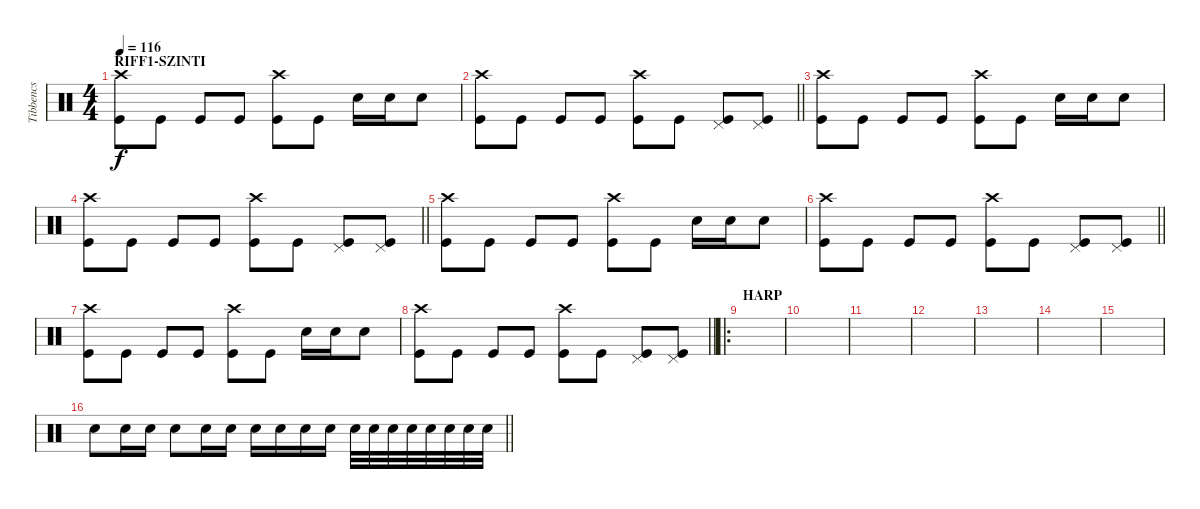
\track ("Tibbencs" "Tibbencs") {instrument percussion}
\staff {score}
\articulation defaults
\ts (4 4)
\section ("" "RIFF1-SZINTI")
\tempo 116
\clef neutral
\ks c
("Kick (hit)" "Crash high (hit)").8{dy f} "Kick (hit)".8 "Kick (hit)".8 "Kick (hit)".8 ("Kick (hit)" "Crash high (hit)").8 "Kick (hit)".8 "Electric Snare (hit)".16 "Electric Snare (hit)".16 "Snare (hit) 2".8 |
\barLineRight lightlight
("Kick (hit)" "Crash high (hit)").8 "Kick (hit)".8 "Kick (hit)".8 "Kick (hit)".8 ("Kick (hit)" "Crash high (hit)").8 "Kick (hit)".8 ("Kick (hit)" "Pedal Hi-Hat (hit)").8 ("Kick (hit)" "Pedal Hi-Hat (hit)").8 |
("Kick (hit)" "Crash high (hit)").8 "Kick (hit)".8 "Kick (hit)".8 "Kick (hit)".8 ("Kick (hit)" "Crash high (hit)").8 "Kick (hit)".8 "Electric Snare (hit)".16 "Electric Snare (hit)".16 "Snare (hit) 2".8 |
\barLineRight lightlight
("Kick (hit)" "Crash high (hit)").8 "Kick (hit)".8 "Kick (hit)".8 "Kick (hit)".8 ("Kick (hit)" "Crash high (hit)").8 "Kick (hit)".8 ("Kick (hit)" "Pedal Hi-Hat (hit)").8 ("Kick (hit)" "Pedal Hi-Hat (hit)").8 |
("Kick (hit)" "Crash high (hit)").8 "Kick (hit)".8 "Kick (hit)".8 "Kick (hit)".8 ("Kick (hit)" "Crash high (hit)").8 "Kick (hit)".8 "Electric Snare (hit)".16 "Electric Snare (hit)".16 "Snare (hit) 2".8 |
\barLineRight lightlight
("Kick (hit)" "Crash high (hit)").8 "Kick (hit)".8 "Kick (hit)".8 "Kick (hit)".8 ("Kick (hit)" "Crash high (hit)").8 "Kick (hit)".8 ("Kick (hit)" "Pedal Hi-Hat (hit)").8 ("Kick (hit)" "Pedal Hi-Hat (hit)").8 |
("Kick (hit)" "Crash high (hit)").8 "Kick (hit)".8 "Kick (hit)".8 "Kick (hit)".8 ("Kick (hit)" "Crash high (hit)").8 "Kick (hit)".8 "Electric Snare (hit)".16 "Electric Snare (hit)".16 "Snare (hit) 2".8 |
\barLineRight lightlight
("Kick (hit)" "Crash high (hit)").8 "Kick (hit)".8 "Kick (hit)".8 "Kick (hit)".8 ("Kick (hit)" "Crash high (hit)").8 "Kick (hit)".8 ("Kick (hit)" "Pedal Hi-Hat (hit)").8 ("Kick (hit)" "Pedal Hi-Hat (hit)").8 |
\ro
\section ("" "HARP")
|
|
|
|
|
|
|
\barLineRight lightlight "Snare (hit) 2".8 "Snare (hit) 2".16 "Snare (hit) 2".16 "Snare (hit) 2".8 "Snare (hit) 2".16 "Snare (hit) 2".16 "Snare (hit) 2".16 "Snare (hit) 2".16 "Snare (hit) 2".16 "Snare (hit) 2".16 "Snare (hit) 2".32 "Snare (hit) 2".32 "Snare (hit) 2".32 "Snare (hit) 2".32 "Snare (hit) 2".32 "Snare (hit) 2".32 "Snare (hit) 2".32 "Snare (hit) 2".32
